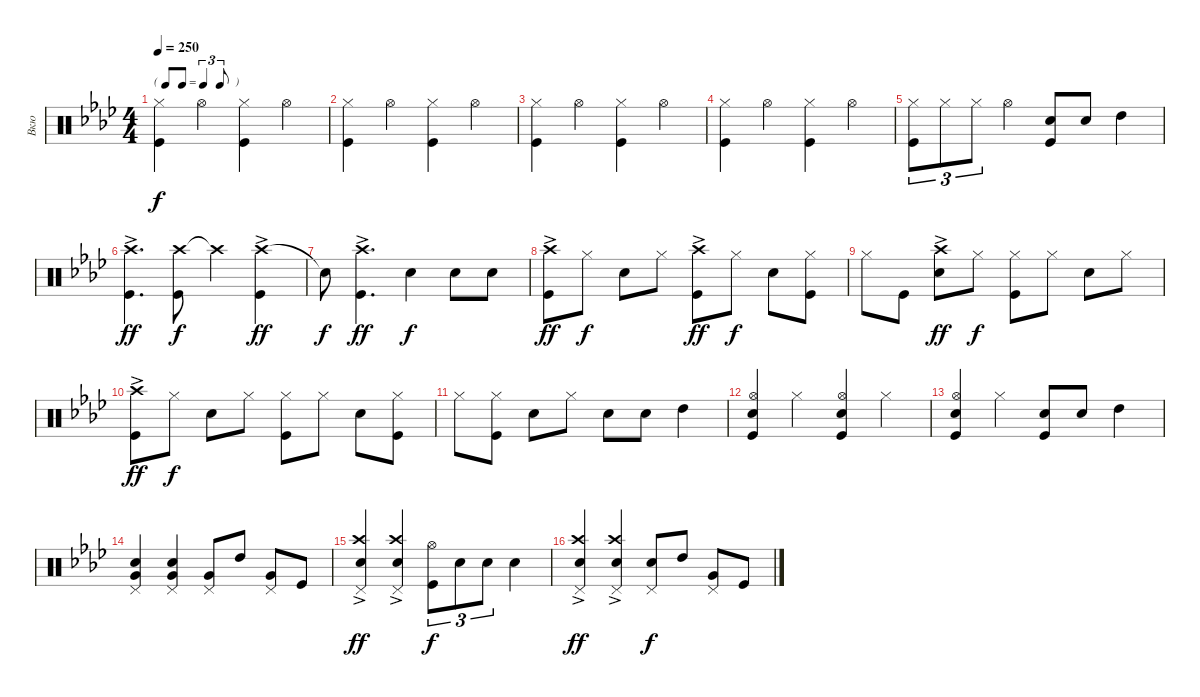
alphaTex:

\track ("Вкю" "Вкю") {instrument percussion}
\staff {score}
\articulation defaults
\ts (4 4)
\tf triplet8th
\tempo 250
\clef neutral
\ks ab
("Hi-Hat (closed)" "Kick (hit)").4{dy f} "Hi-Hat (open)".4 ("Hi-Hat (closed)" "Kick (hit)").4 "Hi-Hat (open)".4 |
("Hi-Hat (closed)" "Kick (hit)").4 "Hi-Hat (open)".4 ("Hi-Hat (closed)" "Kick (hit)").4 "Hi-Hat (open)".4 |
("Hi-Hat (closed)" "Kick (hit)").4 "Hi-Hat (open)".4 ("Hi-Hat (closed)" "Kick (hit)").4 "Hi-Hat (open)".4 |
("Hi-Hat (closed)" "Kick (hit)").4 "Hi-Hat (open)".4 ("Hi-Hat (closed)" "Kick (hit)").4 "Hi-Hat (open)".4 |
("Hi-Hat (closed)" "Kick (hit)").8{tu (3 2)} "Hi-Hat (closed)".8{tu (3 2)} "Hi-Hat (closed)".8{tu (3 2)} "Hi-Hat (open)".4 ("Snare (hit) 2" "Kick (hit)").8 "Snare (hit) 2".8 "High Tom (hit)".4 |
("Crash high (hit)"{ac} "Kick (hit)"{ac}).4{d dy ff} ("Crash high (hit)" "Kick (hit)").8{dy f} "Crash high (hit)"{t}.4 ("Crash high (hit)"{ac} "Kick (hit)"{ac}).4{dy ff} |
"Snare (hit)"{t}.8{dy f} ("Crash high (hit)"{ac} "Kick (hit)"{ac}).4{d dy ff} "Snare (hit) 2".4{dy f} "Snare (hit) 2".8 "Snare (hit) 2".8 |
("Crash high (hit)"{ac} "Kick (hit)"{ac}).8{dy ff} "Hi-Hat (closed)".8{dy f} "Snare (hit) 2".8 "Hi-Hat (closed)".8 ("Crash high (hit)"{ac} "Kick (hit)"{ac}).8{dy ff} "Hi-Hat (closed)".8{dy f} "Snare (hit) 2".8 ("Hi-Hat (closed)" "Kick (hit)").8 |
"Hi-Hat (closed)".8 "Kick (hit)".8 ("Crash high (hit)"{ac} "Snare (hit) 2"{ac}).8{dy ff} "Hi-Hat (closed)".8{dy f} ("Hi-Hat (closed)" "Kick (hit)").8 "Hi-Hat (closed)".8 "Snare (hit) 2".8 "Hi-Hat (closed)".8 |
("Crash high (hit)"{ac} "Kick (hit)"{ac}).8{dy ff} "Hi-Hat (closed)".8{dy f} "Snare (hit) 2".8 "Hi-Hat (closed)".8 ("Hi-Hat (closed)" "Kick (hit)").8 "Hi-Hat (closed)".8 "Snare (hit) 2".8 ("Hi-Hat (closed)" "Kick (hit)").8 |
"Hi-Hat (closed)".8 ("Hi-Hat (closed)" "Kick (hit)").8 "Snare (hit) 2".8 "Hi-Hat (closed)".8 "Snare (hit) 2".8 "Snare (hit) 2".8 "High Tom (hit)".4 |
("Hi-Hat (open)" "Snare (hit) 2" "Kick (hit)").4 "Hi-Hat (closed)".4 ("Hi-Hat (open)" "Snare (hit) 2" "Kick (hit)").4 "Hi-Hat (closed)".4 |
("Hi-Hat (open)" "Snare (hit) 2" "Kick (hit)").4 "Hi-Hat (closed)".4 ("Snare (hit) 2" "Kick (hit)").8 "Snare (hit) 2".8 "High Tom (hit)".4 |
("Very Low Tom (hit)" "Snare (hit) 2" "Pedal Hi-Hat (hit)").4 ("Very Low Tom (hit)" "Snare (hit) 2" "Pedal Hi-Hat (hit)").4 ("Very Low Tom (hit)" "Pedal Hi-Hat (hit)").8 "High Tom (hit)".8 ("Very Low Tom (hit)" "Pedal Hi-Hat (hit)").8 "Kick (hit)".8 |
("Crash high (hit)"{ac} "Snare (hit) 2"{ac} "Pedal Hi-Hat (hit)"{ac}).4{dy ff} ("Crash high (hit)"{ac} "Snare (hit) 2"{ac} "Pedal Hi-Hat (hit)"{ac}).4 ("Hi-Hat (open)" "Kick (hit)").8{tu (3 2) dy f} "Snare (hit) 2".8{tu (3 2)} "Snare (hit) 2".8{tu (3 2)} "Snare (hit) 2".4 |
("Crash high (hit)"{ac} "Snare (hit) 2"{ac} "Pedal Hi-Hat (hit)"{ac}).4{dy ff} ("Crash high (hit)"{ac} "Snare (hit) 2"{ac} "Pedal Hi-Hat (hit)"{ac}).4 ("Snare (hit) 2" "Pedal Hi-Hat (hit)").8{dy f} "High Tom (hit)".8 ("Very Low Tom (hit)" "Pedal Hi-Hat (hit)").8 "Kick (hit)".8
